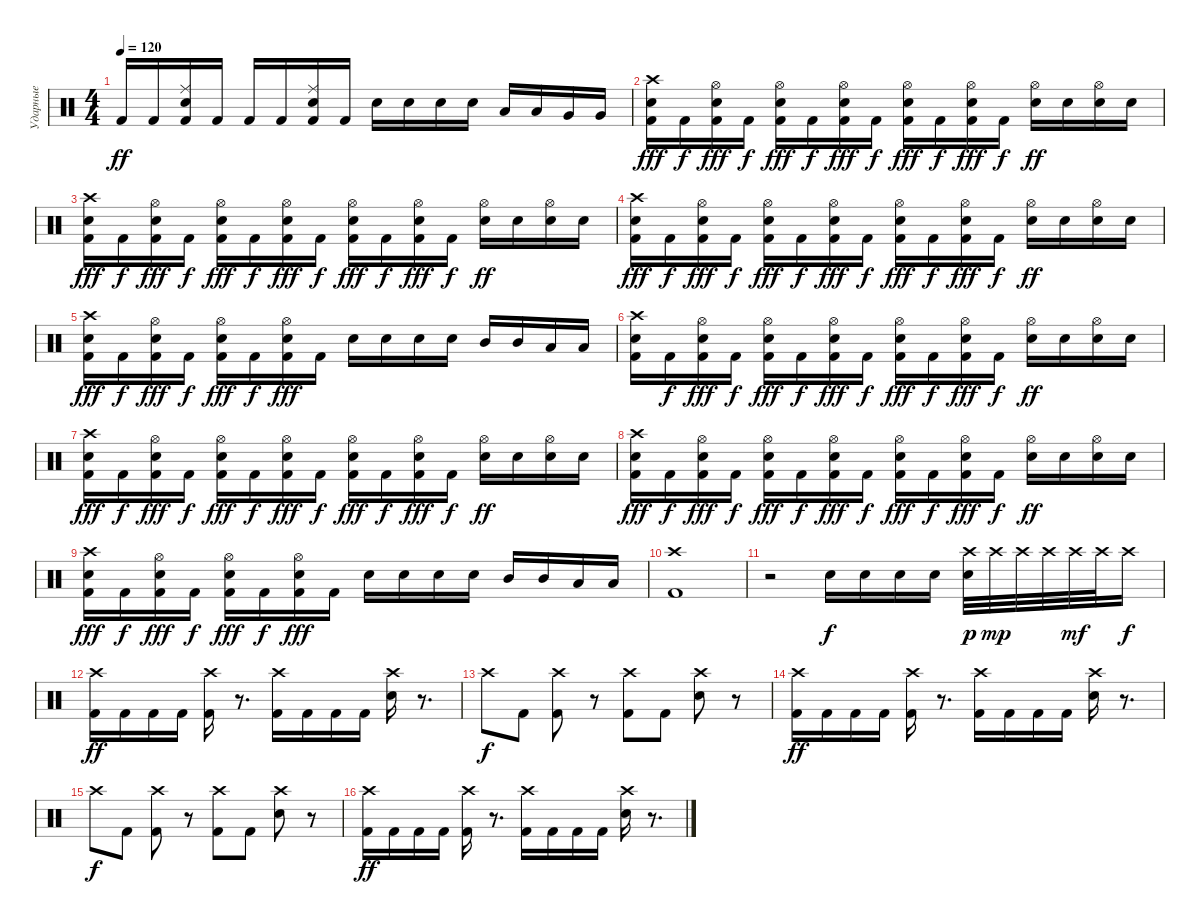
\track ("Ударные" "Ударные") {instrument percussion}
\staff {score}
\articulation defaults
\ts (4 4)
\tempo 120
\clef neutral
\ks c "Kick (hit) 2".16{dy ff} "Kick (hit) 2".16
("Ride (middle)" "Kick (hit) 2" "Electric Snare (hit)").16 "Kick (hit) 2".16 "Kick (hit) 2".16 "Kick (hit) 2".16 ("Ride (middle)" "Kick (hit) 2" "Electric Snare (hit)").16 "Kick (hit) 2".16 "Electric Snare (hit)".16 "Electric Snare (hit)".16 "Electric Snare (hit)".16 "Electric Snare (hit)".16 "Low Tom (hit)".16 "Low Tom (hit)".16 "Very Low Tom (hit)".16 "Very Low Tom (hit)".16 |
("Crash high (hit)" "Kick (hit) 2" "Electric Snare (hit)").16{dy fff} "Kick (hit) 2".16{dy f} ("Hi-Hat (open)" "Kick (hit) 2" "Electric Snare (hit)").16{dy fff} "Kick (hit) 2".16{dy f} ("Hi-Hat (open)" "Kick (hit) 2" "Electric Snare (hit)").16{dy fff} "Kick (hit) 2".16{dy f} ("Hi-Hat (open)" "Kick (hit) 2" "Electric Snare (hit)").16{dy fff} "Kick (hit) 2".16{dy f} ("Hi-Hat (open)" "Kick (hit) 2" "Electric Snare (hit)").16{dy fff} "Kick (hit) 2".16{dy f} ("Hi-Hat (open)" "Kick (hit) 2" "Electric Snare (hit)").16{dy fff} "Kick (hit) 2".16{dy f} ("Hi-Hat (open)" "Electric Snare (hit)").16{dy ff} "Electric Snare (hit)".16 ("Hi-Hat (open)" "Electric Snare (hit)").16 "Electric Snare (hit)".16 |
("Crash high (hit)" "Kick (hit) 2" "Electric Snare (hit)").16{dy fff} "Kick (hit) 2".16{dy f} ("Hi-Hat (open)" "Kick (hit) 2" "Electric Snare (hit)").16{dy fff} "Kick (hit) 2".16{dy f} ("Hi-Hat (open)" "Kick (hit) 2" "Electric Snare (hit)").16{dy fff} "Kick (hit) 2".16{dy f} ("Hi-Hat (open)" "Kick (hit) 2" "Electric Snare (hit)").16{dy fff} "Kick (hit) 2".16{dy f} ("Hi-Hat (open)" "Kick (hit) 2" "Electric Snare (hit)").16{dy fff} "Kick (hit) 2".16{dy f} ("Hi-Hat (open)" "Kick (hit) 2" "Electric Snare (hit)").16{dy fff} "Kick (hit) 2".16{dy f} ("Hi-Hat (open)" "Electric Snare (hit)").16{dy ff} "Electric Snare (hit)".16 ("Hi-Hat (open)" "Electric Snare (hit)").16 "Electric Snare (hit)".16 |
("Crash high (hit)" "Kick (hit) 2" "Electric Snare (hit)").16{dy fff} "Kick (hit) 2".16{dy f} ("Hi-Hat (open)" "Kick (hit) 2" "Electric Snare (hit)").16{dy fff} "Kick (hit) 2".16{dy f} ("Hi-Hat (open)" "Kick (hit) 2" "Electric Snare (hit)").16{dy fff} "Kick (hit) 2".16{dy f} ("Hi-Hat (open)" "Kick (hit) 2" "Electric Snare (hit)").16{dy fff} "Kick (hit) 2".16{dy f} ("Hi-Hat (open)" "Kick (hit) 2" "Electric Snare (hit)").16{dy fff} "Kick (hit) 2".16{dy f} ("Hi-Hat (open)" "Kick (hit) 2" "Electric Snare (hit)").16{dy fff} "Kick (hit) 2".16{dy f} ("Hi-Hat (open)" "Electric Snare (hit)").16{dy ff} "Electric Snare (hit)".16 ("Hi-Hat (open)" "Electric Snare (hit)").16 "Electric Snare (hit)".16 |
("Crash high (hit)" "Kick (hit) 2" "Electric Snare (hit)").16{dy fff} "Kick (hit) 2".16{dy f} ("Hi-Hat (open)" "Kick (hit) 2" "Electric Snare (hit)").16{dy fff} "Kick (hit) 2".16{dy f} ("Hi-Hat (open)" "Kick (hit) 2" "Electric Snare (hit)").16{dy fff} "Kick (hit) 2".16{dy f} ("Hi-Hat (open)" "Kick (hit) 2" "Electric Snare (hit)").16{dy fff} "Kick (hit) 2".16 "Electric Snare (hit)".16 "Electric Snare (hit)".16 "Electric Snare (hit)".16 "Electric Snare (hit)".16 "Mid Tom (hit)".16 "Mid Tom (hit)".16 "Low Tom (hit)".16 "Low Tom (hit)".16 |
("Crash high (hit)" "Kick (hit) 2" "Electric Snare (hit)").16 "Kick (hit) 2".16{dy f} ("Hi-Hat (open)" "Kick (hit) 2" "Electric Snare (hit)").16{dy fff} "Kick (hit) 2".16{dy f} ("Hi-Hat (open)" "Kick (hit) 2" "Electric Snare (hit)").16{dy fff} "Kick (hit) 2".16{dy f} ("Hi-Hat (open)" "Kick (hit) 2" "Electric Snare (hit)").16{dy fff} "Kick (hit) 2".16{dy f} ("Hi-Hat (open)" "Kick (hit) 2" "Electric Snare (hit)").16{dy fff} "Kick (hit) 2".16{dy f} ("Hi-Hat (open)" "Kick (hit) 2" "Electric Snare (hit)").16{dy fff} "Kick (hit) 2".16{dy f} ("Hi-Hat (open)" "Electric Snare (hit)").16{dy ff} "Electric Snare (hit)".16 ("Hi-Hat (open)" "Electric Snare (hit)").16 "Electric Snare (hit)".16 |
("Crash high (hit)" "Kick (hit) 2" "Electric Snare (hit)").16{dy fff} "Kick (hit) 2".16{dy f} ("Hi-Hat (open)" "Kick (hit) 2" "Electric Snare (hit)").16{dy fff} "Kick (hit) 2".16{dy f} ("Hi-Hat (open)" "Kick (hit) 2" "Electric Snare (hit)").16{dy fff} "Kick (hit) 2".16{dy f} ("Hi-Hat (open)" "Kick (hit) 2" "Electric Snare (hit)").16{dy fff} "Kick (hit) 2".16{dy f} ("Hi-Hat (open)" "Kick (hit) 2" "Electric Snare (hit)").16{dy fff} "Kick (hit) 2".16{dy f} ("Hi-Hat (open)" "Kick (hit) 2" "Electric Snare (hit)").16{dy fff} "Kick (hit) 2".16{dy f} ("Hi-Hat (open)" "Electric Snare (hit)").16{dy ff} "Electric Snare (hit)".16 ("Hi-Hat (open)" "Electric Snare (hit)").16 "Electric Snare (hit)".16 |
("Crash high (hit)" "Kick (hit) 2" "Electric Snare (hit)").16{dy fff} "Kick (hit) 2".16{dy f} ("Hi-Hat (open)" "Kick (hit) 2" "Electric Snare (hit)").16{dy fff} "Kick (hit) 2".16{dy f} ("Hi-Hat (open)" "Kick (hit) 2" "Electric Snare (hit)").16{dy fff} "Kick (hit) 2".16{dy f} ("Hi-Hat (open)" "Kick (hit) 2" "Electric Snare (hit)").16{dy fff} "Kick (hit) 2".16{dy f} ("Hi-Hat (open)" "Kick (hit) 2" "Electric Snare (hit)").16{dy fff} "Kick (hit) 2".16{dy f} ("Hi-Hat (open)" "Kick (hit) 2" "Electric Snare (hit)").16{dy fff} "Kick (hit) 2".16{dy f} ("Hi-Hat (open)" "Electric Snare (hit)").16{dy ff} "Electric Snare (hit)".16 ("Hi-Hat (open)" "Electric Snare (hit)").16 "Electric Snare (hit)".16 |
("Crash high (hit)" "Kick (hit) 2" "Electric Snare (hit)").16{dy fff} "Kick (hit) 2".16{dy f} ("Hi-Hat (open)" "Kick (hit) 2" "Electric Snare (hit)").16{dy fff} "Kick (hit) 2".16{dy f} ("Hi-Hat (open)" "Kick (hit) 2" "Electric Snare (hit)").16{dy fff} "Kick (hit) 2".16{dy f} ("Hi-Hat (open)" "Kick (hit) 2" "Electric Snare (hit)").16{dy fff} "Kick (hit) 2".16 "Electric Snare (hit)".16 "Electric Snare (hit)".16 "Electric Snare (hit)".16 "Electric Snare (hit)".16 "Mid Tom (hit)".16 "Mid Tom (hit)".16 "Low Tom (hit)".16 "Low Tom (hit)".16 |
("Crash high (hit)" "Kick (hit) 2").1 |
r.2 "Electric Snare (hit)".16{dy f} "Electric Snare (hit)".16 "Electric Snare (hit)".16 "Electric Snare (hit)".16 ("Crash high (hit)" "Electric Snare (hit)").32{dy p} "Crash high (hit)".32{dy mp} "Crash high (hit)".32 "Crash high (hit)".32 "Crash high (hit)".32{dy mf} "Crash high (hit)".32 "Crash high (hit)".16{dy f} |
("Crash high (hit)" "Kick (hit) 2").16{dy ff} "Kick (hit) 2".16 "Kick (hit) 2".16 "Kick (hit) 2".16 ("Crash high (hit)" "Kick (hit) 2").16 r.8{d} ("Crash high (hit)" "Kick (hit) 2").16 "Kick (hit) 2".16 "Kick (hit) 2".16 "Kick (hit) 2".16 ("Crash high (hit)" "Electric Snare (hit)").16 r.8{d} |
"Crash high (hit)".8{dy f} "Kick (hit) 2".8 ("Crash high (hit)" "Kick (hit) 2").8 r.8 ("Crash high (hit)" "Kick (hit) 2").8 "Kick (hit) 2".8 ("Crash high (hit)" "Electric Snare (hit)").8 r.8 |
("Crash high (hit)" "Kick (hit) 2").16{dy ff} "Kick (hit) 2".16 "Kick (hit) 2".16 "Kick (hit) 2".16 ("Crash high (hit)" "Kick (hit) 2").16 r.8{d} ("Crash high (hit)" "Kick (hit) 2").16 "Kick (hit) 2".16 "Kick (hit) 2".16 "Kick (hit) 2".16 ("Crash high (hit)" "Electric Snare (hit)").16 r.8{d} |
"Crash high (hit)".8{dy f} "Kick (hit) 2".8 ("Crash high (hit)" "Kick (hit) 2").8 r.8 ("Crash high (hit)" "Kick (hit) 2").8 "Kick (hit) 2".8 ("Crash high (hit)" "Electric Snare (hit)").8 r.8 |
("Crash high (hit)" "Kick (hit) 2").16{dy ff} "Kick (hit) 2".16 "Kick (hit) 2".16 "Kick (hit) 2".16 ("Crash high (hit)" "Kick (hit) 2").16 r.8{d} ("Crash high (hit)" "Kick (hit) 2").16 "Kick (hit) 2".16 "Kick (hit) 2".16 "Kick (hit) 2".16 ("Crash high (hit)" "Electric Snare (hit)").16 r.8{d}
